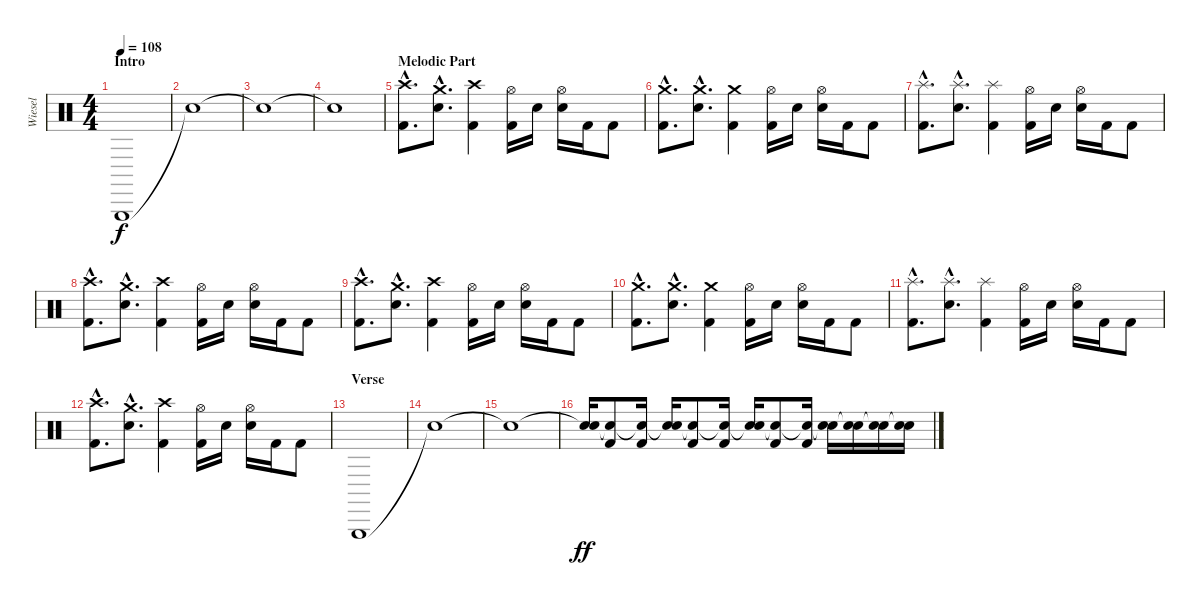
\track ("Wiesel" "Wiesel") {instrument percussion}
\staff {score}
\articulation defaults
\ts (4 4)
\section ("" "Intro")
\tempo 108
\clef neutral
\ks c "Triangle (hit)".1{dy f}
|
"Snare (hit)"{t}.1 |
"Snare (hit)"{t}.1 |
"Snare (hit)"{t}.1 |
\section ("" "Melodic Part")
("Crash high (hit)"{hac} "Kick (hit) 2"{hac}).8{d} ("Crash medium (hit)"{hac} "Electric Snare (hit)"{hac}).8{d} ("Crash high (hit)" "Kick (hit) 2").4 ("Hi-Hat (open)" "Kick (hit) 2").16 "Electric Snare (hit)".16 ("Hi-Hat (open)" "Electric Snare (hit)").16 "Kick (hit) 2".16 "Kick (hit) 2".8 |
("Crash medium (hit)"{hac} "Kick (hit) 2"{hac}).8{d} ("Crash medium (hit)"{hac} "Electric Snare (hit)"{hac}).8{d} ("Crash medium (hit)" "Kick (hit) 2").4 ("Hi-Hat (open)" "Kick (hit) 2").16 "Electric Snare (hit)".16 ("Hi-Hat (open)" "Electric Snare (hit)").16 "Kick (hit) 2".16 "Kick (hit) 2".8 |
("Splash (hit)"{hac} "Kick (hit) 2"{hac}).8{d} ("Splash (hit)"{hac} "Electric Snare (hit)"{hac}).8{d} ("Splash (hit)" "Kick (hit) 2").4 ("Hi-Hat (open)" "Kick (hit) 2").16 "Electric Snare (hit)".16 ("Hi-Hat (open)" "Electric Snare (hit)").16 "Kick (hit) 2".16 "Kick (hit) 2".8 |
("Crash high (hit)"{hac} "Kick (hit) 2"{hac}).8{d} ("Crash medium (hit)"{hac} "Electric Snare (hit)"{hac}).8{d} ("Crash high (hit)" "Kick (hit) 2").4 ("Hi-Hat (open)" "Kick (hit) 2").16 "Electric Snare (hit)".16 ("Hi-Hat (open)" "Electric Snare (hit)").16 "Kick (hit) 2".16 "Kick (hit) 2".8 |
("Crash high (hit)"{hac} "Kick (hit) 2"{hac}).8{d} ("Crash medium (hit)"{hac} "Electric Snare (hit)"{hac}).8{d} ("Crash high (hit)" "Kick (hit) 2").4 ("Hi-Hat (open)" "Kick (hit) 2").16 "Electric Snare (hit)".16 ("Hi-Hat (open)" "Electric Snare (hit)").16 "Kick (hit) 2".16 "Kick (hit) 2".8 |
("Crash medium (hit)"{hac} "Kick (hit) 2"{hac}).8{d} ("Crash medium (hit)"{hac} "Electric Snare (hit)"{hac}).8{d} ("Crash medium (hit)" "Kick (hit) 2").4 ("Hi-Hat (open)" "Kick (hit) 2").16 "Electric Snare (hit)".16 ("Hi-Hat (open)" "Electric Snare (hit)").16 "Kick (hit) 2".16 "Kick (hit) 2".8 |
("Splash (hit)"{hac} "Kick (hit) 2"{hac}).8{d} ("Splash (hit)"{hac} "Electric Snare (hit)"{hac}).8{d} ("Splash (hit)" "Kick (hit) 2").4 ("Hi-Hat (open)" "Kick (hit) 2").16 "Electric Snare (hit)".16 ("Hi-Hat (open)" "Electric Snare (hit)").16 "Kick (hit) 2".16 "Kick (hit) 2".8 |
("Crash high (hit)"{hac} "Kick (hit) 2"{hac}).8{d} ("Crash medium (hit)"{hac} "Electric Snare (hit)"{hac}).8{d} ("Crash high (hit)" "Kick (hit) 2").4 ("Hi-Hat (open)" "Kick (hit) 2").16 "Electric Snare (hit)".16 ("Hi-Hat (open)" "Electric Snare (hit)").16 "Kick (hit) 2".16 "Kick (hit) 2".8 |
\section ("" "Verse")
"Triangle (hit)".1 |
"Snare (hit)"{t}.1 |
"Snare (hit)"{t}.1 |
("Snare (hit)"{t} "Electric Snare (hit)").16{dy ff} ("Snare (hit)"{t} "Kick (hit) 2").8 ("Snare (hit)"{t} "Kick (hit) 2").16 ("Snare (hit)"{t} "Electric Snare (hit)").16 ("Snare (hit)"{t} "Kick (hit) 2").8 ("Snare (hit)"{t} "Kick (hit) 2").16 ("Snare (hit)"{t} "Electric Snare (hit)").16 ("Snare (hit)"{t} "Kick (hit) 2").8 ("Snare (hit)"{t} "Kick (hit) 2").16 ("Snare (hit)"{t} "Electric Snare (hit)").16 ("Snare (hit)"{t} "Electric Snare (hit)").16 ("Snare (hit)"{t} "Electric Snare (hit)").16 ("Snare (hit)"{t} "Electric Snare (hit)").16
